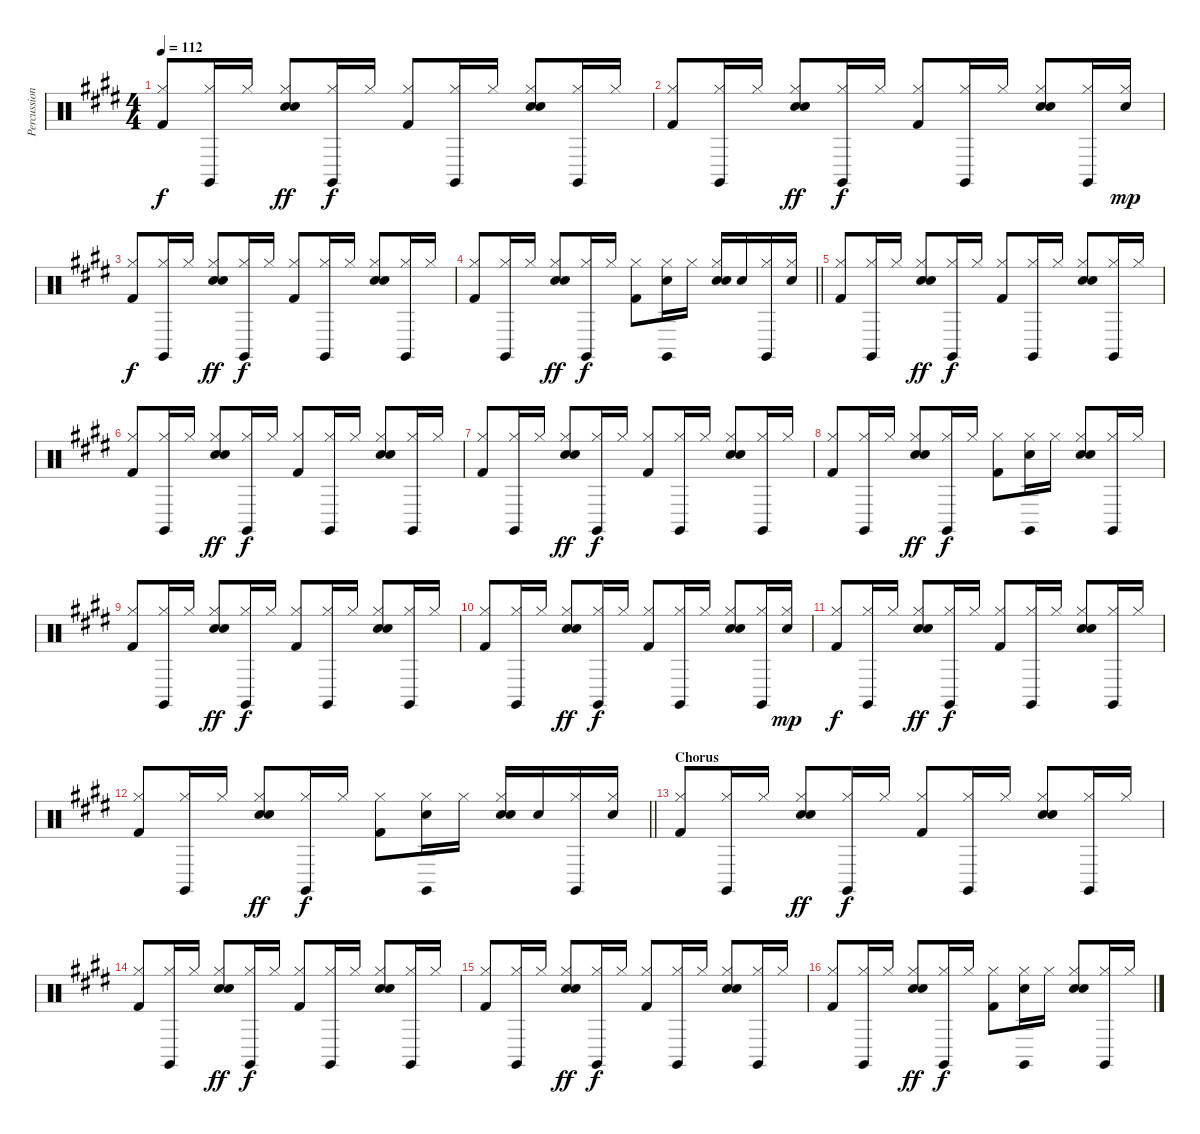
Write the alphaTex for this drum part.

\track ("Percussion" "Percussion") {instrument percussion}
\staff {score}
\articulation defaults
\ts (4 4)
\tempo 112
\clef neutral
\ks e
("Hi-Hat (closed)" "Kick (hit) 2").8{dy f} ("Claves (hit)" "Hi-Hat (closed)").16 "Hi-Hat (closed)".16 ("Hand Clap (hit)" "Hi-Hat (closed)" "Snare (hit) 2").8{dy ff} ("Claves (hit)" "Hi-Hat (closed)").16{dy f} "Hi-Hat (closed)".16 ("Hi-Hat (closed)" "Kick (hit) 2").8 ("Claves (hit)" "Hi-Hat (closed)").16 "Hi-Hat (closed)".16 ("Hand Clap (hit)" "Hi-Hat (closed)" "Snare (hit) 2").8 ("Claves (hit)" "Hi-Hat (closed)").16 "Hi-Hat (closed)".16 |
("Hi-Hat (closed)" "Kick (hit) 2").8 ("Claves (hit)" "Hi-Hat (closed)").16 "Hi-Hat (closed)".16 ("Hand Clap (hit)" "Hi-Hat (closed)" "Snare (hit) 2").8{dy ff} ("Claves (hit)" "Hi-Hat (closed)").16{dy f} "Hi-Hat (closed)".16 ("Hi-Hat (closed)" "Kick (hit) 2").8 ("Claves (hit)" "Hi-Hat (closed)").16 "Hi-Hat (closed)".16 ("Hand Clap (hit)" "Hi-Hat (closed)" "Snare (hit) 2").8 ("Claves (hit)" "Hi-Hat (closed)").16 ("Electric Snare (hit)" "Hi-Hat (closed)").16{dy mp} |
("Hi-Hat (closed)" "Kick (hit) 2").8{dy f} ("Claves (hit)" "Hi-Hat (closed)").16 "Hi-Hat (closed)".16 ("Hand Clap (hit)" "Hi-Hat (closed)" "Snare (hit) 2").8{dy ff} ("Claves (hit)" "Hi-Hat (closed)").16{dy f} "Hi-Hat (closed)".16 ("Hi-Hat (closed)" "Kick (hit) 2").8 ("Claves (hit)" "Hi-Hat (closed)").16 "Hi-Hat (closed)".16 ("Hand Clap (hit)" "Hi-Hat (closed)" "Snare (hit) 2").8 ("Claves (hit)" "Hi-Hat (closed)").16 "Hi-Hat (closed)".16 |
\barLineRight lightlight
("Hi-Hat (closed)" "Kick (hit) 2").8 ("Claves (hit)" "Hi-Hat (closed)").16 "Hi-Hat (closed)".16 ("Hand Clap (hit)" "Hi-Hat (closed)" "Snare (hit) 2").8{dy ff} ("Claves (hit)" "Hi-Hat (closed)").16{dy f} "Hi-Hat (closed)".16 ("Hi-Hat (closed)" "Kick (hit) 2").8 ("Claves (hit)" "Hi-Hat (closed)" "Snare (hit) 2").16 "Hi-Hat (closed)".16 ("Hand Clap (hit)" "Hi-Hat (closed)" "Snare (hit) 2").16 "Snare (hit) 2".16 ("Claves (hit)" "Hi-Hat (closed)").16 ("Hi-Hat (closed)" "Snare (hit) 2").16 |
("Hi-Hat (closed)" "Kick (hit) 2").8 ("Claves (hit)" "Hi-Hat (closed)").16 "Hi-Hat (closed)".16 ("Hand Clap (hit)" "Hi-Hat (closed)" "Snare (hit) 2").8{dy ff} ("Claves (hit)" "Hi-Hat (closed)").16{dy f} "Hi-Hat (closed)".16 ("Hi-Hat (closed)" "Kick (hit) 2").8 ("Claves (hit)" "Hi-Hat (closed)").16 "Hi-Hat (closed)".16 ("Hand Clap (hit)" "Hi-Hat (closed)" "Snare (hit) 2").8 ("Claves (hit)" "Hi-Hat (closed)").16 "Hi-Hat (closed)".16 |
("Hi-Hat (closed)" "Kick (hit) 2").8 ("Claves (hit)" "Hi-Hat (closed)").16 "Hi-Hat (closed)".16 ("Hand Clap (hit)" "Hi-Hat (closed)" "Snare (hit) 2").8{dy ff} ("Claves (hit)" "Hi-Hat (closed)").16{dy f} "Hi-Hat (closed)".16 ("Hi-Hat (closed)" "Kick (hit) 2").8 ("Claves (hit)" "Hi-Hat (closed)").16 "Hi-Hat (closed)".16 ("Hand Clap (hit)" "Hi-Hat (closed)" "Snare (hit) 2").8 ("Claves (hit)" "Hi-Hat (closed)").16 "Hi-Hat (closed)".16 |
("Hi-Hat (closed)" "Kick (hit) 2").8 ("Claves (hit)" "Hi-Hat (closed)").16 "Hi-Hat (closed)".16 ("Hand Clap (hit)" "Hi-Hat (closed)" "Snare (hit) 2").8{dy ff} ("Claves (hit)" "Hi-Hat (closed)").16{dy f} "Hi-Hat (closed)".16 ("Hi-Hat (closed)" "Kick (hit) 2").8 ("Claves (hit)" "Hi-Hat (closed)").16 "Hi-Hat (closed)".16 ("Hand Clap (hit)" "Hi-Hat (closed)" "Snare (hit) 2").8 ("Claves (hit)" "Hi-Hat (closed)").16 "Hi-Hat (closed)".16 |
("Hi-Hat (closed)" "Kick (hit) 2").8 ("Claves (hit)" "Hi-Hat (closed)").16 "Hi-Hat (closed)".16 ("Hand Clap (hit)" "Hi-Hat (closed)" "Snare (hit) 2").8{dy ff} ("Claves (hit)" "Hi-Hat (closed)").16{dy f} "Hi-Hat (closed)".16 ("Hi-Hat (closed)" "Kick (hit) 2").8 ("Claves (hit)" "Hand Clap (hit)" "Hi-Hat (closed)").16 "Hi-Hat (closed)".16 ("Hand Clap (hit)" "Hi-Hat (closed)" "Snare (hit) 2").8 ("Claves (hit)" "Hi-Hat (closed)").16 "Hi-Hat (closed)".16 |
("Hi-Hat (closed)" "Kick (hit) 2").8 ("Claves (hit)" "Hi-Hat (closed)").16 "Hi-Hat (closed)".16 ("Hand Clap (hit)" "Hi-Hat (closed)" "Snare (hit) 2").8{dy ff} ("Claves (hit)" "Hi-Hat (closed)").16{dy f} "Hi-Hat (closed)".16 ("Hi-Hat (closed)" "Kick (hit) 2").8 ("Claves (hit)" "Hi-Hat (closed)").16 "Hi-Hat (closed)".16 ("Hand Clap (hit)" "Hi-Hat (closed)" "Snare (hit) 2").8 ("Claves (hit)" "Hi-Hat (closed)").16 "Hi-Hat (closed)".16 |
("Hi-Hat (closed)" "Kick (hit) 2").8 ("Claves (hit)" "Hi-Hat (closed)").16 "Hi-Hat (closed)".16 ("Hand Clap (hit)" "Hi-Hat (closed)" "Snare (hit) 2").8{dy ff} ("Claves (hit)" "Hi-Hat (closed)").16{dy f} "Hi-Hat (closed)".16 ("Hi-Hat (closed)" "Kick (hit) 2").8 ("Claves (hit)" "Hi-Hat (closed)").16 "Hi-Hat (closed)".16 ("Hand Clap (hit)" "Hi-Hat (closed)" "Snare (hit) 2").8 ("Claves (hit)" "Hi-Hat (closed)").16 ("Electric Snare (hit)" "Hi-Hat (closed)").16{dy mp} |
("Hi-Hat (closed)" "Kick (hit) 2").8{dy f} ("Claves (hit)" "Hi-Hat (closed)").16 "Hi-Hat (closed)".16 ("Hand Clap (hit)" "Hi-Hat (closed)" "Snare (hit) 2").8{dy ff} ("Claves (hit)" "Hi-Hat (closed)").16{dy f} "Hi-Hat (closed)".16 ("Hi-Hat (closed)" "Kick (hit) 2").8 ("Claves (hit)" "Hi-Hat (closed)").16 "Hi-Hat (closed)".16 ("Hand Clap (hit)" "Hi-Hat (closed)" "Snare (hit) 2").8 ("Claves (hit)" "Hi-Hat (closed)").16 "Hi-Hat (closed)".16 |
\barLineRight lightlight
("Hi-Hat (closed)" "Kick (hit) 2").8 ("Claves (hit)" "Hi-Hat (closed)").16 "Hi-Hat (closed)".16 ("Hand Clap (hit)" "Hi-Hat (closed)" "Snare (hit) 2").8{dy ff} ("Claves (hit)" "Hi-Hat (closed)").16{dy f} "Hi-Hat (closed)".16 ("Hi-Hat (closed)" "Kick (hit) 2").8 ("Claves (hit)" "Hi-Hat (closed)" "Snare (hit) 2").16 "Hi-Hat (closed)".16 ("Hand Clap (hit)" "Hi-Hat (closed)" "Snare (hit) 2").16 "Snare (hit) 2".16 ("Claves (hit)" "Hi-Hat (closed)").16 ("Hi-Hat (closed)" "Snare (hit) 2").16 |
\section ("" "Chorus")
("Hi-Hat (closed)" "Kick (hit) 2").8 ("Claves (hit)" "Hi-Hat (closed)").16 "Hi-Hat (closed)".16 ("Hand Clap (hit)" "Hi-Hat (closed)" "Snare (hit) 2").8{dy ff} ("Claves (hit)" "Hi-Hat (closed)").16{dy f} "Hi-Hat (closed)".16 ("Hi-Hat (closed)" "Kick (hit) 2").8 ("Claves (hit)" "Hi-Hat (closed)").16 "Hi-Hat (closed)".16 ("Hand Clap (hit)" "Hi-Hat (closed)" "Snare (hit) 2").8 ("Claves (hit)" "Hi-Hat (closed)").16 "Hi-Hat (closed)".16 |
("Hi-Hat (closed)" "Kick (hit) 2").8 ("Claves (hit)" "Hi-Hat (closed)").16 "Hi-Hat (closed)".16 ("Hand Clap (hit)" "Hi-Hat (closed)" "Snare (hit) 2").8{dy ff} ("Claves (hit)" "Hi-Hat (closed)").16{dy f} "Hi-Hat (closed)".16 ("Hi-Hat (closed)" "Kick (hit) 2").8 ("Claves (hit)" "Hi-Hat (closed)").16 "Hi-Hat (closed)".16 ("Hand Clap (hit)" "Hi-Hat (closed)" "Snare (hit) 2").8 ("Claves (hit)" "Hi-Hat (closed)").16 "Hi-Hat (closed)".16 |
("Hi-Hat (closed)" "Kick (hit) 2").8 ("Claves (hit)" "Hi-Hat (closed)").16 "Hi-Hat (closed)".16 ("Hand Clap (hit)" "Hi-Hat (closed)" "Snare (hit) 2").8{dy ff} ("Claves (hit)" "Hi-Hat (closed)").16{dy f} "Hi-Hat (closed)".16 ("Hi-Hat (closed)" "Kick (hit) 2").8 ("Claves (hit)" "Hi-Hat (closed)").16 "Hi-Hat (closed)".16 ("Hand Clap (hit)" "Hi-Hat (closed)" "Snare (hit) 2").8 ("Claves (hit)" "Hi-Hat (closed)").16 "Hi-Hat (closed)".16 |
("Hi-Hat (closed)" "Kick (hit) 2").8 ("Claves (hit)" "Hi-Hat (closed)").16 "Hi-Hat (closed)".16 ("Hand Clap (hit)" "Hi-Hat (closed)" "Snare (hit) 2").8{dy ff} ("Claves (hit)" "Hi-Hat (closed)").16{dy f} "Hi-Hat (closed)".16 ("Hi-Hat (closed)" "Kick (hit) 2").8 ("Claves (hit)" "Hand Clap (hit)" "Hi-Hat (closed)").16 "Hi-Hat (closed)".16 ("Hand Clap (hit)" "Hi-Hat (closed)" "Snare (hit) 2").8 ("Claves (hit)" "Hi-Hat (closed)").16 "Hi-Hat (closed)".16
